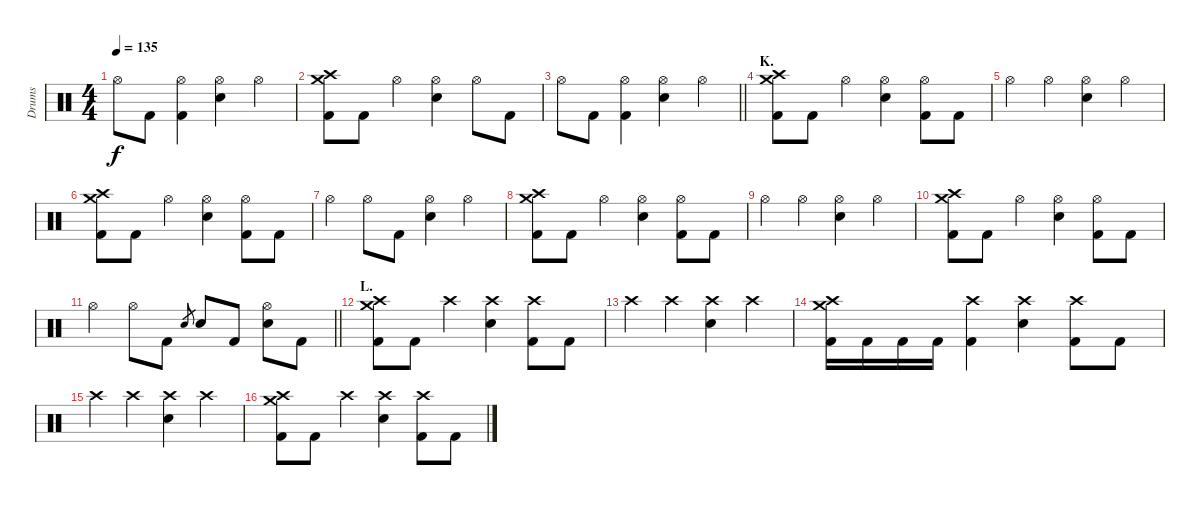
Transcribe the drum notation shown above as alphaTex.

\track ("Drums" "Drums") {instrument percussion}
\staff {score}
\articulation defaults
\ts (4 4)
\tempo 135
\clef neutral
\ks c "Hi-Hat (open)".8{dy f} "Kick (hit) 2".8
("Hi-Hat (open)" "Kick (hit) 2").4 ("Hi-Hat (open)" "Electric Snare (hit)").4 "Hi-Hat (open)".4 |
("Crash medium (hit)" "Crash high (hit)" "Kick (hit) 2").8 "Kick (hit) 2".8 "Hi-Hat (open)".4 ("Hi-Hat (open)" "Electric Snare (hit)").4 "Hi-Hat (open)".8 "Kick (hit) 2".8 |
\barLineRight lightlight "Hi-Hat (open)".8 "Kick (hit) 2".8
("Hi-Hat (open)" "Kick (hit) 2").4 ("Hi-Hat (open)" "Electric Snare (hit)").4 "Hi-Hat (open)".4 |
\section ("" "K.")
("Crash medium (hit)" "Crash high (hit)" "Kick (hit) 2").8 "Kick (hit) 2".8 "Hi-Hat (open)".4 ("Hi-Hat (open)" "Electric Snare (hit)").4 ("Hi-Hat (open)" "Kick (hit) 2").8 "Kick (hit) 2".8 |
"Hi-Hat (open)".4 "Hi-Hat (open)".4 ("Hi-Hat (open)" "Electric Snare (hit)").4 "Hi-Hat (open)".4 |
("Crash medium (hit)" "Crash high (hit)" "Kick (hit) 2").8 "Kick (hit) 2".8 "Hi-Hat (open)".4 ("Hi-Hat (open)" "Electric Snare (hit)").4 ("Hi-Hat (open)" "Kick (hit) 2").8 "Kick (hit) 2".8 |
"Hi-Hat (open)".4 "Hi-Hat (open)".8 "Kick (hit) 2".8 ("Hi-Hat (open)" "Electric Snare (hit)").4 "Hi-Hat (open)".4 |
("Crash medium (hit)" "Crash high (hit)" "Kick (hit) 2").8 "Kick (hit) 2".8 "Hi-Hat (open)".4 ("Hi-Hat (open)" "Electric Snare (hit)").4 ("Hi-Hat (open)" "Kick (hit) 2").8 "Kick (hit) 2".8 |
"Hi-Hat (open)".4 "Hi-Hat (open)".4 ("Hi-Hat (open)" "Electric Snare (hit)").4 "Hi-Hat (open)".4 |
("Crash medium (hit)" "Crash high (hit)" "Kick (hit) 2").8 "Kick (hit) 2".8 "Hi-Hat (open)".4 ("Hi-Hat (open)" "Electric Snare (hit)").4 ("Hi-Hat (open)" "Kick (hit) 2").8 "Kick (hit) 2".8 |
\barLineRight lightlight "Hi-Hat (open)".4 "Hi-Hat (open)".8 "Kick (hit) 2".8 "Electric Snare (hit)".8{gr} "Electric Snare (hit)".8 "Kick (hit) 2".8
("Hi-Hat (open)" "Electric Snare (hit)").8 "Kick (hit) 2".8 |
\section ("" "L.")
("Crash medium (hit)" "Crash high (hit)" "Kick (hit) 2").8 "Kick (hit) 2".8 "Crash high (hit)".4 ("Crash high (hit)" "Electric Snare (hit)").4 ("Crash high (hit)" "Kick (hit) 2").8 "Kick (hit) 2".8 |
"Crash high (hit)".4 "Crash high (hit)".4 ("Crash high (hit)" "Electric Snare (hit)").4 "Crash high (hit)".4 |
("Crash medium (hit)" "Crash high (hit)" "Kick (hit) 2").16 "Kick (hit) 2".16 "Kick (hit) 2".16 "Kick (hit) 2".16 ("Crash high (hit)" "Kick (hit) 2").4 ("Crash high (hit)" "Electric Snare (hit)").4 ("Crash high (hit)" "Kick (hit) 2").8 "Kick (hit) 2".8 |
"Crash high (hit)".4 "Crash high (hit)".4 ("Crash high (hit)" "Electric Snare (hit)").4 "Crash high (hit)".4 |
("Crash medium (hit)" "Crash high (hit)" "Kick (hit) 2").8 "Kick (hit) 2".8 "Crash high (hit)".4 ("Crash high (hit)" "Electric Snare (hit)").4 ("Crash high (hit)" "Kick (hit) 2").8 "Kick (hit) 2".8
